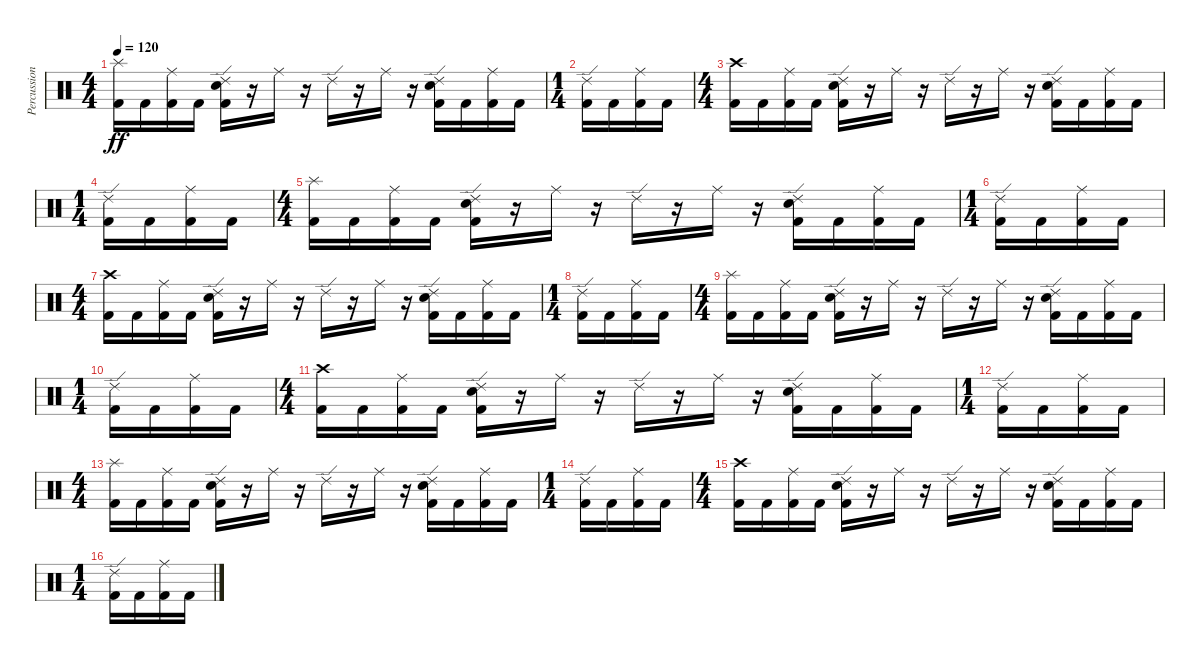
\track ("Percussion" "Percussion") {instrument percussion}
\staff {score}
\articulation defaults
\ts (4 4)
\tempo 120
\clef neutral
\ks c
("Splash (hit)" "Kick (hit) 2").16{dy ff} "Kick (hit) 2".16 ("Ride (middle)" "Kick (hit) 2").16 "Kick (hit) 2".16 ("Ride (edge) 2" "Electric Snare (hit)" "Kick (hit) 2").16 r.16 "Ride (middle)".16 r.16 "Ride (edge) 2".16 r.16 "Ride (middle)".16 r.16 ("Ride (edge) 2" "Electric Snare (hit)" "Kick (hit) 2").16 "Kick (hit) 2".16 ("Ride (middle)" "Kick (hit) 2").16 "Kick (hit) 2".16 |
\ts (1 4)
("Ride (edge) 2" "Kick (hit) 2").16 "Kick (hit) 2".16 ("Ride (middle)" "Kick (hit) 2").16 "Kick (hit) 2".16 |
\ts (4 4)
("Crash high (hit)" "Kick (hit) 2").16 "Kick (hit) 2".16 ("Ride (middle)" "Kick (hit) 2").16 "Kick (hit) 2".16 ("Ride (edge) 2" "Electric Snare (hit)" "Kick (hit) 2").16 r.16 "Ride (middle)".16 r.16 "Ride (edge) 2".16 r.16 "Ride (middle)".16 r.16 ("Ride (edge) 2" "Electric Snare (hit)" "Kick (hit) 2").16 "Kick (hit) 2".16 ("Ride (middle)" "Kick (hit) 2").16 "Kick (hit) 2".16 |
\ts (1 4)
("Ride (edge) 2" "Kick (hit) 2").16 "Kick (hit) 2".16 ("Ride (middle)" "Kick (hit) 2").16 "Kick (hit) 2".16 |
\ts (4 4)
("Splash (hit)" "Kick (hit) 2").16 "Kick (hit) 2".16 ("Ride (middle)" "Kick (hit) 2").16 "Kick (hit) 2".16 ("Ride (edge) 2" "Electric Snare (hit)" "Kick (hit) 2").16 r.16 "Ride (middle)".16 r.16 "Ride (edge) 2".16 r.16 "Ride (middle)".16 r.16 ("Ride (edge) 2" "Electric Snare (hit)" "Kick (hit) 2").16 "Kick (hit) 2".16 ("Ride (middle)" "Kick (hit) 2").16 "Kick (hit) 2".16 |
\ts (1 4)
("Ride (edge) 2" "Kick (hit) 2").16 "Kick (hit) 2".16 ("Ride (middle)" "Kick (hit) 2").16 "Kick (hit) 2".16 |
\ts (4 4)
("Crash high (hit)" "Kick (hit) 2").16 "Kick (hit) 2".16 ("Ride (middle)" "Kick (hit) 2").16 "Kick (hit) 2".16 ("Ride (edge) 2" "Electric Snare (hit)" "Kick (hit) 2").16 r.16 "Ride (middle)".16 r.16 "Ride (edge) 2".16 r.16 "Ride (middle)".16 r.16 ("Ride (edge) 2" "Electric Snare (hit)" "Kick (hit) 2").16 "Kick (hit) 2".16 ("Ride (middle)" "Kick (hit) 2").16 "Kick (hit) 2".16 |
\ts (1 4)
("Ride (edge) 2" "Kick (hit) 2").16 "Kick (hit) 2".16 ("Ride (middle)" "Kick (hit) 2").16 "Kick (hit) 2".16 |
\ts (4 4)
("Splash (hit)" "Kick (hit) 2").16 "Kick (hit) 2".16 ("Ride (middle)" "Kick (hit) 2").16 "Kick (hit) 2".16 ("Ride (edge) 2" "Electric Snare (hit)" "Kick (hit) 2").16 r.16 "Ride (middle)".16 r.16 "Ride (edge) 2".16 r.16 "Ride (middle)".16 r.16 ("Ride (edge) 2" "Electric Snare (hit)" "Kick (hit) 2").16 "Kick (hit) 2".16 ("Ride (middle)" "Kick (hit) 2").16 "Kick (hit) 2".16 |
\ts (1 4)
("Ride (edge) 2" "Kick (hit) 2").16 "Kick (hit) 2".16 ("Ride (middle)" "Kick (hit) 2").16 "Kick (hit) 2".16 |
\ts (4 4)
("Crash high (hit)" "Kick (hit) 2").16 "Kick (hit) 2".16 ("Ride (middle)" "Kick (hit) 2").16 "Kick (hit) 2".16 ("Ride (edge) 2" "Electric Snare (hit)" "Kick (hit) 2").16 r.16 "Ride (middle)".16 r.16 "Ride (edge) 2".16 r.16 "Ride (middle)".16 r.16 ("Ride (edge) 2" "Electric Snare (hit)" "Kick (hit) 2").16 "Kick (hit) 2".16 ("Ride (middle)" "Kick (hit) 2").16 "Kick (hit) 2".16 |
\ts (1 4)
("Ride (edge) 2" "Kick (hit) 2").16 "Kick (hit) 2".16 ("Ride (middle)" "Kick (hit) 2").16 "Kick (hit) 2".16 |
\ts (4 4)
("Splash (hit)" "Kick (hit) 2").16 "Kick (hit) 2".16 ("Ride (middle)" "Kick (hit) 2").16 "Kick (hit) 2".16 ("Ride (edge) 2" "Electric Snare (hit)" "Kick (hit) 2").16 r.16 "Ride (middle)".16 r.16 "Ride (edge) 2".16 r.16 "Ride (middle)".16 r.16 ("Ride (edge) 2" "Electric Snare (hit)" "Kick (hit) 2").16 "Kick (hit) 2".16 ("Ride (middle)" "Kick (hit) 2").16 "Kick (hit) 2".16 |
\ts (1 4)
("Ride (edge) 2" "Kick (hit) 2").16 "Kick (hit) 2".16 ("Ride (middle)" "Kick (hit) 2").16 "Kick (hit) 2".16 |
\ts (4 4)
("Crash high (hit)" "Kick (hit) 2").16 "Kick (hit) 2".16 ("Ride (middle)" "Kick (hit) 2").16 "Kick (hit) 2".16 ("Ride (edge) 2" "Electric Snare (hit)" "Kick (hit) 2").16 r.16 "Ride (middle)".16 r.16 "Ride (edge) 2".16 r.16 "Ride (middle)".16 r.16 ("Ride (edge) 2" "Electric Snare (hit)" "Kick (hit) 2").16 "Kick (hit) 2".16 ("Ride (middle)" "Kick (hit) 2").16 "Kick (hit) 2".16 |
\ts (1 4)
("Ride (edge) 2" "Kick (hit) 2").16 "Kick (hit) 2".16 ("Ride (middle)" "Kick (hit) 2").16 "Kick (hit) 2".16
